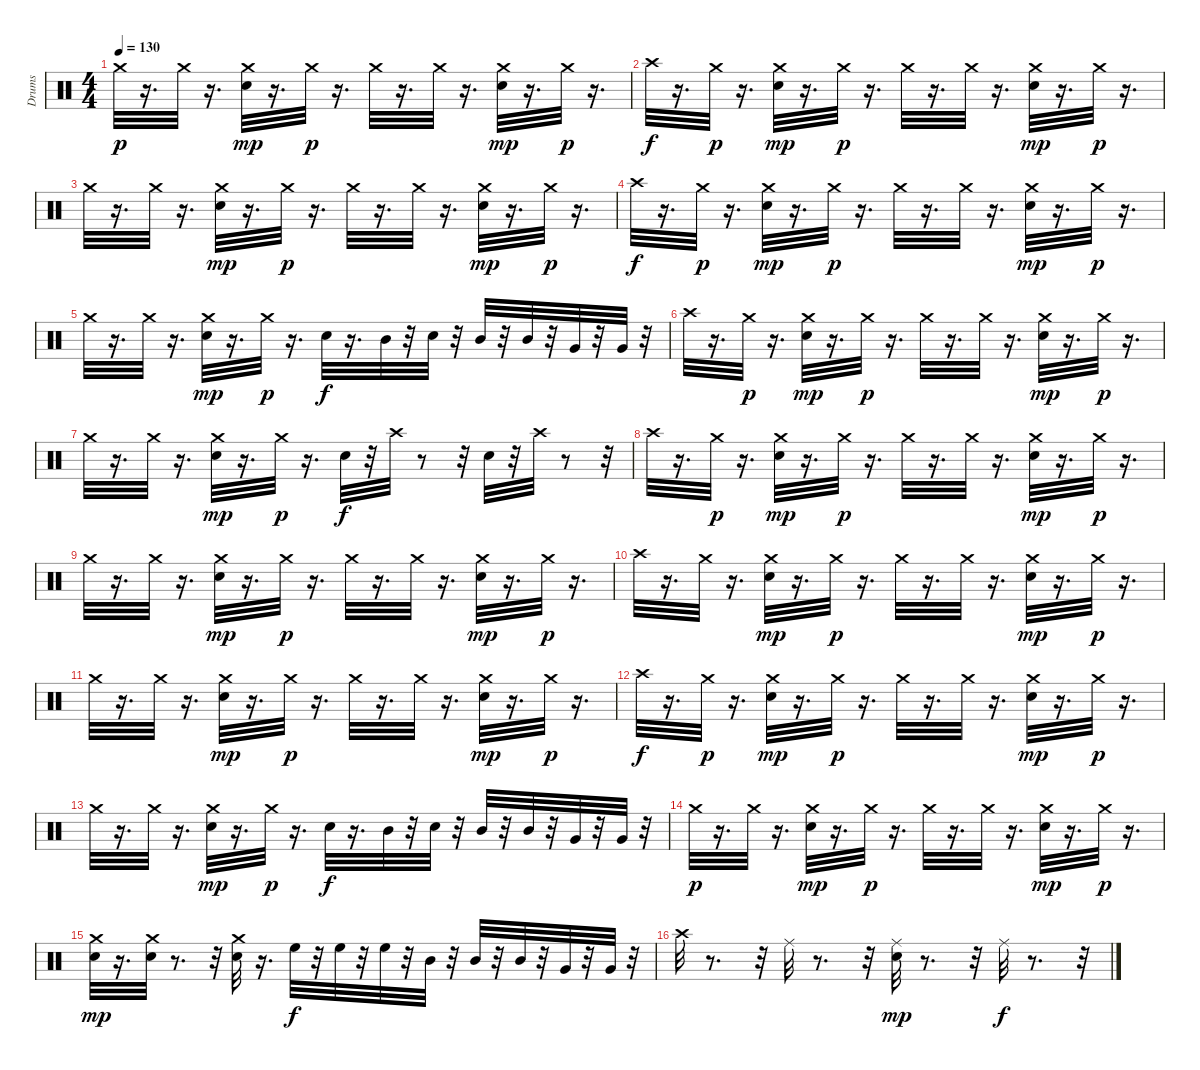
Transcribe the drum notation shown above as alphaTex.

\track ("Drums" "Drums") {instrument percussion}
\staff {score}
\articulation defaults
\ts (4 4)
\tempo 130
\clef neutral
\ks c "Crash medium (hit)".32{dy p}
r.16{d} "Crash medium (hit)".32 r.16{d} ("Snare (hit) 2" "Crash medium (hit)").32{dy mp} r.16{d} "Crash medium (hit)".32{dy p} r.16{d} "Crash medium (hit)".32 r.16{d} "Crash medium (hit)".32 r.16{d} ("Snare (hit) 2" "Crash medium (hit)").32{dy mp} r.16{d} "Crash medium (hit)".32{dy p} r.16{d} |
"Crash high (hit)".32{dy f} r.16{d} "Crash medium (hit)".32{dy p} r.16{d} ("Snare (hit) 2" "Crash medium (hit)").32{dy mp} r.16{d} "Crash medium (hit)".32{dy p} r.16{d} "Crash medium (hit)".32 r.16{d} "Crash medium (hit)".32 r.16{d} ("Snare (hit) 2" "Crash medium (hit)").32{dy mp} r.16{d} "Crash medium (hit)".32{dy p} r.16{d} |
"Crash medium (hit)".32 r.16{d} "Crash medium (hit)".32 r.16{d} ("Snare (hit) 2" "Crash medium (hit)").32{dy mp} r.16{d} "Crash medium (hit)".32{dy p} r.16{d} "Crash medium (hit)".32 r.16{d} "Crash medium (hit)".32 r.16{d} ("Snare (hit) 2" "Crash medium (hit)").32{dy mp} r.16{d} "Crash medium (hit)".32{dy p} r.16{d} |
"Crash high (hit)".32{dy f} r.16{d} "Crash medium (hit)".32{dy p} r.16{d} ("Snare (hit) 2" "Crash medium (hit)").32{dy mp} r.16{d} "Crash medium (hit)".32{dy p} r.16{d} "Crash medium (hit)".32 r.16{d} "Crash medium (hit)".32 r.16{d} ("Snare (hit) 2" "Crash medium (hit)").32{dy mp} r.16{d} "Crash medium (hit)".32{dy p} r.16{d} |
"Crash medium (hit)".32 r.16{d} "Crash medium (hit)".32 r.16{d} ("Snare (hit) 2" "Crash medium (hit)").32{dy mp} r.16{d} "Crash medium (hit)".32{dy p} r.16{d} "Snare (hit) 2".32{dy f} r.16{d} "Mid Tom (hit)".32 r.32 "Snare (hit) 2".32 r.32 "Mid Tom (hit)".32 r.32 "Mid Tom (hit)".32 r.32 "Very Low Tom (hit)".32 r.32 "Very Low Tom (hit)".32 r.32 |
"Crash high (hit)".32 r.16{d} "Crash medium (hit)".32{dy p} r.16{d} ("Snare (hit) 2" "Crash medium (hit)").32{dy mp} r.16{d} "Crash medium (hit)".32{dy p} r.16{d} "Crash medium (hit)".32 r.16{d} "Crash medium (hit)".32 r.16{d} ("Snare (hit) 2" "Crash medium (hit)").32{dy mp} r.16{d} "Crash medium (hit)".32{dy p} r.16{d} |
"Crash medium (hit)".32 r.16{d} "Crash medium (hit)".32 r.16{d} ("Snare (hit) 2" "Crash medium (hit)").32{dy mp} r.16{d} "Crash medium (hit)".32{dy p} r.16{d} "Snare (hit) 2".32{dy f} r.32 "Crash high (hit)".32 r.8 r.32 "Snare (hit) 2".32 r.32 "Crash high (hit)".32 r.8 r.32 |
"Crash high (hit)".32 r.16{d} "Crash medium (hit)".32{dy p} r.16{d} ("Snare (hit) 2" "Crash medium (hit)").32{dy mp} r.16{d} "Crash medium (hit)".32{dy p} r.16{d} "Crash medium (hit)".32 r.16{d} "Crash medium (hit)".32 r.16{d} ("Snare (hit) 2" "Crash medium (hit)").32{dy mp} r.16{d} "Crash medium (hit)".32{dy p} r.16{d} |
"Crash medium (hit)".32 r.16{d} "Crash medium (hit)".32 r.16{d} ("Snare (hit) 2" "Crash medium (hit)").32{dy mp} r.16{d} "Crash medium (hit)".32{dy p} r.16{d} "Crash medium (hit)".32 r.16{d} "Crash medium (hit)".32 r.16{d} ("Snare (hit) 2" "Crash medium (hit)").32{dy mp} r.16{d} "Crash medium (hit)".32{dy p} r.16{d} |
"Crash high (hit)".32 r.16{d} "Crash medium (hit)".32 r.16{d} ("Snare (hit) 2" "Crash medium (hit)").32{dy mp} r.16{d} "Crash medium (hit)".32{dy p} r.16{d} "Crash medium (hit)".32 r.16{d} "Crash medium (hit)".32 r.16{d} ("Snare (hit) 2" "Crash medium (hit)").32{dy mp} r.16{d} "Crash medium (hit)".32{dy p} r.16{d} |
"Crash medium (hit)".32 r.16{d} "Crash medium (hit)".32 r.16{d} ("Snare (hit) 2" "Crash medium (hit)").32{dy mp} r.16{d} "Crash medium (hit)".32{dy p} r.16{d} "Crash medium (hit)".32 r.16{d} "Crash medium (hit)".32 r.16{d} ("Snare (hit) 2" "Crash medium (hit)").32{dy mp} r.16{d} "Crash medium (hit)".32{dy p} r.16{d} |
"Crash high (hit)".32{dy f} r.16{d} "Crash medium (hit)".32{dy p} r.16{d} ("Snare (hit) 2" "Crash medium (hit)").32{dy mp} r.16{d} "Crash medium (hit)".32{dy p} r.16{d} "Crash medium (hit)".32 r.16{d} "Crash medium (hit)".32 r.16{d} ("Snare (hit) 2" "Crash medium (hit)").32{dy mp} r.16{d} "Crash medium (hit)".32{dy p} r.16{d} |
"Crash medium (hit)".32 r.16{d} "Crash medium (hit)".32 r.16{d} ("Snare (hit) 2" "Crash medium (hit)").32{dy mp} r.16{d} "Crash medium (hit)".32{dy p} r.16{d} "Snare (hit) 2".32{dy f} r.16{d} "Mid Tom (hit)".32 r.32 "Snare (hit) 2".32 r.32 "Mid Tom (hit)".32 r.32 "Mid Tom (hit)".32 r.32 "Very Low Tom (hit)".32 r.32 "Very Low Tom (hit)".32 r.32 |
"Crash medium (hit)".32{dy p} r.16{d} "Crash medium (hit)".32 r.16{d} ("Snare (hit) 2" "Crash medium (hit)").32{dy mp} r.16{d} "Crash medium (hit)".32{dy p} r.16{d} "Crash medium (hit)".32 r.16{d} "Crash medium (hit)".32 r.16{d} ("Snare (hit) 2" "Crash medium (hit)").32{dy mp} r.16{d} "Crash medium (hit)".32{dy p} r.16{d} |
("Snare (hit) 2" "Crash medium (hit)").32{dy mp} r.16{d} ("Snare (hit) 2" "Crash medium (hit)").32 r.8{d} r.32 ("Snare (hit) 2" "Crash medium (hit)").32 r.16{d} "High Floor Tom (hit)".32{dy f} r.32 "High Floor Tom (hit)".32 r.32 "High Floor Tom (hit)".32 r.32 "Mid Tom (hit)".32 r.32 "Mid Tom (hit)".32 r.32 "Mid Tom (hit)".32 r.32 "Very Low Tom (hit)".32 r.32 "Very Low Tom (hit)".32 r.32 |
"Crash high (hit)".32 r.8{d} r.32 "Ride (middle)".32 r.8{d} r.32 ("Snare (hit) 2" "Ride (middle)").32{dy mp} r.8{d} r.32 "Ride (middle)".32{dy f} r.8{d} r.32
